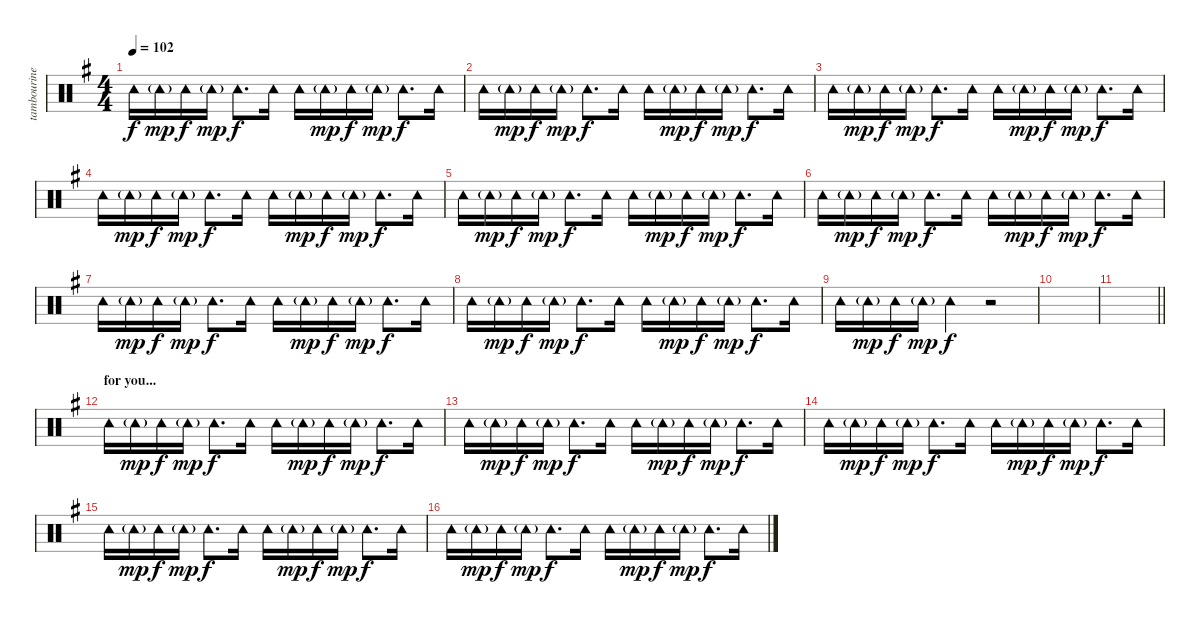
\track ("tambourine" "tambourine") {instrument percussion}
\staff {score}
\articulation defaults
\ts (4 4)
\tempo 102
\clef neutral
\ks eminor "Tambourine (hit)".16{dy f} "Tambourine (hit)"{g}.16{dy mp} "Tambourine (hit)".16{dy f} "Tambourine (hit)"{g}.16{dy mp} "Tambourine (hit)".8{d dy f} "Tambourine (hit)".16 "Tambourine (hit)".16 "Tambourine (hit)"{g}.16{dy mp} "Tambourine (hit)".16{dy f} "Tambourine (hit)"{g}.16{dy mp} "Tambourine (hit)".8{d dy f} "Tambourine (hit)".16
|
"Tambourine (hit)".16 "Tambourine (hit)"{g}.16{dy mp} "Tambourine (hit)".16{dy f} "Tambourine (hit)"{g}.16{dy mp} "Tambourine (hit)".8{d dy f} "Tambourine (hit)".16 "Tambourine (hit)".16 "Tambourine (hit)"{g}.16{dy mp} "Tambourine (hit)".16{dy f} "Tambourine (hit)"{g}.16{dy mp} "Tambourine (hit)".8{d dy f} "Tambourine (hit)".16 |
"Tambourine (hit)".16 "Tambourine (hit)"{g}.16{dy mp} "Tambourine (hit)".16{dy f} "Tambourine (hit)"{g}.16{dy mp} "Tambourine (hit)".8{d dy f} "Tambourine (hit)".16 "Tambourine (hit)".16 "Tambourine (hit)"{g}.16{dy mp} "Tambourine (hit)".16{dy f} "Tambourine (hit)"{g}.16{dy mp} "Tambourine (hit)".8{d dy f} "Tambourine (hit)".16 |
"Tambourine (hit)".16 "Tambourine (hit)"{g}.16{dy mp} "Tambourine (hit)".16{dy f} "Tambourine (hit)"{g}.16{dy mp} "Tambourine (hit)".8{d dy f} "Tambourine (hit)".16 "Tambourine (hit)".16 "Tambourine (hit)"{g}.16{dy mp} "Tambourine (hit)".16{dy f} "Tambourine (hit)"{g}.16{dy mp} "Tambourine (hit)".8{d dy f} "Tambourine (hit)".16 |
"Tambourine (hit)".16 "Tambourine (hit)"{g}.16{dy mp} "Tambourine (hit)".16{dy f} "Tambourine (hit)"{g}.16{dy mp} "Tambourine (hit)".8{d dy f} "Tambourine (hit)".16 "Tambourine (hit)".16 "Tambourine (hit)"{g}.16{dy mp} "Tambourine (hit)".16{dy f} "Tambourine (hit)"{g}.16{dy mp} "Tambourine (hit)".8{d dy f} "Tambourine (hit)".16 |
"Tambourine (hit)".16 "Tambourine (hit)"{g}.16{dy mp} "Tambourine (hit)".16{dy f} "Tambourine (hit)"{g}.16{dy mp} "Tambourine (hit)".8{d dy f} "Tambourine (hit)".16 "Tambourine (hit)".16 "Tambourine (hit)"{g}.16{dy mp} "Tambourine (hit)".16{dy f} "Tambourine (hit)"{g}.16{dy mp} "Tambourine (hit)".8{d dy f} "Tambourine (hit)".16 |
"Tambourine (hit)".16 "Tambourine (hit)"{g}.16{dy mp} "Tambourine (hit)".16{dy f} "Tambourine (hit)"{g}.16{dy mp} "Tambourine (hit)".8{d dy f} "Tambourine (hit)".16 "Tambourine (hit)".16 "Tambourine (hit)"{g}.16{dy mp} "Tambourine (hit)".16{dy f} "Tambourine (hit)"{g}.16{dy mp} "Tambourine (hit)".8{d dy f} "Tambourine (hit)".16 |
"Tambourine (hit)".16 "Tambourine (hit)"{g}.16{dy mp} "Tambourine (hit)".16{dy f} "Tambourine (hit)"{g}.16{dy mp} "Tambourine (hit)".8{d dy f} "Tambourine (hit)".16 "Tambourine (hit)".16 "Tambourine (hit)"{g}.16{dy mp} "Tambourine (hit)".16{dy f} "Tambourine (hit)"{g}.16{dy mp} "Tambourine (hit)".8{d dy f} "Tambourine (hit)".16 |
"Tambourine (hit)".16 "Tambourine (hit)"{g}.16{dy mp} "Tambourine (hit)".16{dy f} "Tambourine (hit)"{g}.16{dy mp} "Tambourine (hit)".4{dy f} r.2 |
|
\barLineRight lightlight
|
\section ("" "for you...")
"Tambourine (hit)".16 "Tambourine (hit)"{g}.16{dy mp} "Tambourine (hit)".16{dy f} "Tambourine (hit)"{g}.16{dy mp} "Tambourine (hit)".8{d dy f} "Tambourine (hit)".16 "Tambourine (hit)".16 "Tambourine (hit)"{g}.16{dy mp} "Tambourine (hit)".16{dy f} "Tambourine (hit)"{g}.16{dy mp} "Tambourine (hit)".8{d dy f} "Tambourine (hit)".16 |
"Tambourine (hit)".16 "Tambourine (hit)"{g}.16{dy mp} "Tambourine (hit)".16{dy f} "Tambourine (hit)"{g}.16{dy mp} "Tambourine (hit)".8{d dy f} "Tambourine (hit)".16 "Tambourine (hit)".16 "Tambourine (hit)"{g}.16{dy mp} "Tambourine (hit)".16{dy f} "Tambourine (hit)"{g}.16{dy mp} "Tambourine (hit)".8{d dy f} "Tambourine (hit)".16 |
"Tambourine (hit)".16 "Tambourine (hit)"{g}.16{dy mp} "Tambourine (hit)".16{dy f} "Tambourine (hit)"{g}.16{dy mp} "Tambourine (hit)".8{d dy f} "Tambourine (hit)".16 "Tambourine (hit)".16 "Tambourine (hit)"{g}.16{dy mp} "Tambourine (hit)".16{dy f} "Tambourine (hit)"{g}.16{dy mp} "Tambourine (hit)".8{d dy f} "Tambourine (hit)".16 |
"Tambourine (hit)".16 "Tambourine (hit)"{g}.16{dy mp} "Tambourine (hit)".16{dy f} "Tambourine (hit)"{g}.16{dy mp} "Tambourine (hit)".8{d dy f} "Tambourine (hit)".16 "Tambourine (hit)".16 "Tambourine (hit)"{g}.16{dy mp} "Tambourine (hit)".16{dy f} "Tambourine (hit)"{g}.16{dy mp} "Tambourine (hit)".8{d dy f} "Tambourine (hit)".16 |
"Tambourine (hit)".16 "Tambourine (hit)"{g}.16{dy mp} "Tambourine (hit)".16{dy f} "Tambourine (hit)"{g}.16{dy mp} "Tambourine (hit)".8{d dy f} "Tambourine (hit)".16 "Tambourine (hit)".16 "Tambourine (hit)"{g}.16{dy mp} "Tambourine (hit)".16{dy f} "Tambourine (hit)"{g}.16{dy mp} "Tambourine (hit)".8{d dy f} "Tambourine (hit)".16
